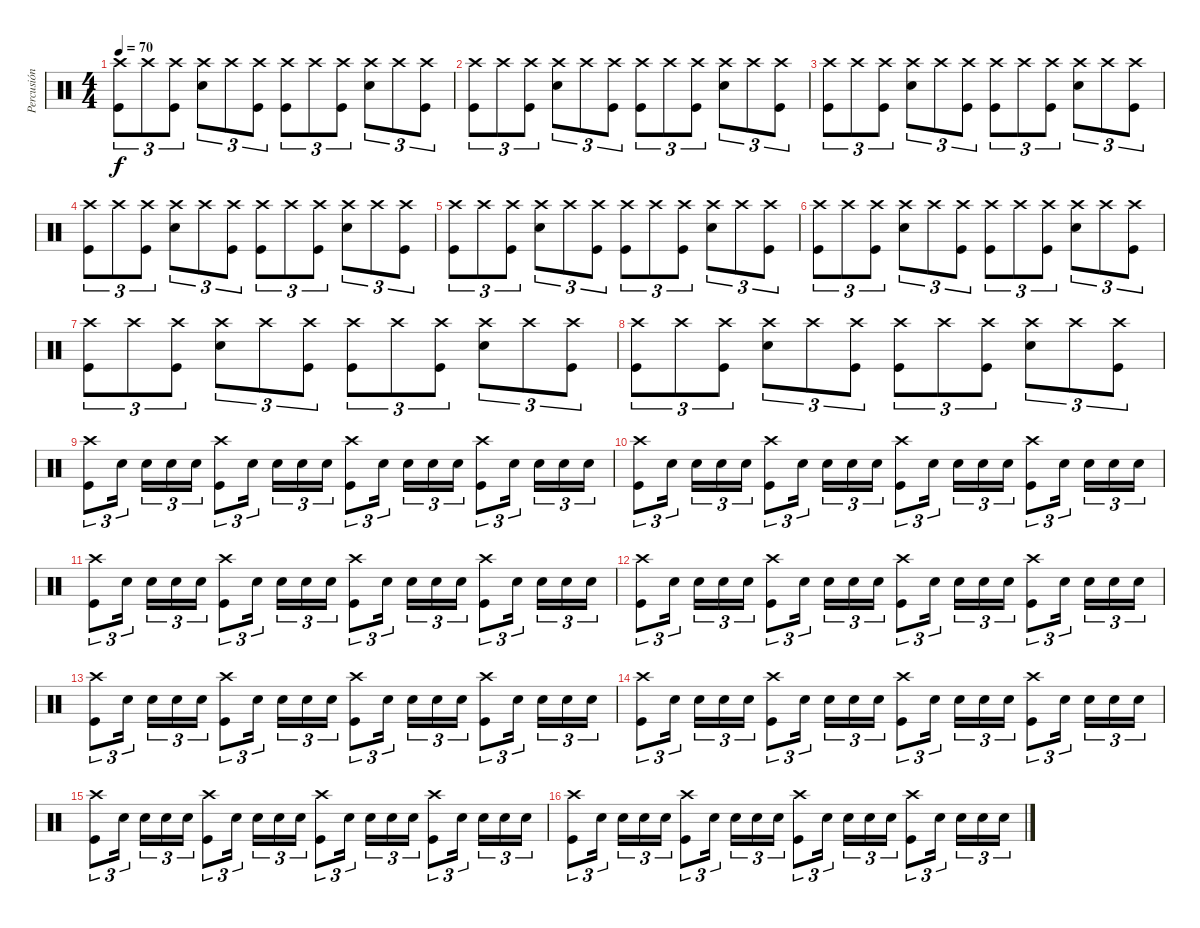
\track ("Percusión" "Percusión") {instrument percussion}
\staff {score}
\articulation defaults
\ts (4 4)
\tempo 70
\clef neutral
\ks c
("Crash high (hit)" "Kick (hit)").8{tu (3 2) dy f} "Crash high (hit)".8{tu (3 2)} ("Crash high (hit)" "Kick (hit)").8{tu (3 2)} ("Crash high (hit)" "Snare (hit) 2").8{tu (3 2)} "Crash high (hit)".8{tu (3 2)} ("Crash high (hit)" "Kick (hit)").8{tu (3 2)} ("Crash high (hit)" "Kick (hit)").8{tu (3 2)} "Crash high (hit)".8{tu (3 2)} ("Crash high (hit)" "Kick (hit)").8{tu (3 2)} ("Crash high (hit)" "Snare (hit) 2").8{tu (3 2)} "Crash high (hit)".8{tu (3 2)} ("Crash high (hit)" "Kick (hit)").8{tu (3 2)} |
("Crash high (hit)" "Kick (hit)").8{tu (3 2)} "Crash high (hit)".8{tu (3 2)} ("Crash high (hit)" "Kick (hit)").8{tu (3 2)} ("Crash high (hit)" "Snare (hit) 2").8{tu (3 2)} "Crash high (hit)".8{tu (3 2)} ("Crash high (hit)" "Kick (hit)").8{tu (3 2)} ("Crash high (hit)" "Kick (hit)").8{tu (3 2)} "Crash high (hit)".8{tu (3 2)} ("Crash high (hit)" "Kick (hit)").8{tu (3 2)} ("Crash high (hit)" "Snare (hit) 2").8{tu (3 2)} "Crash high (hit)".8{tu (3 2)} ("Crash high (hit)" "Kick (hit)").8{tu (3 2)} |
("Crash high (hit)" "Kick (hit)").8{tu (3 2)} "Crash high (hit)".8{tu (3 2)} ("Crash high (hit)" "Kick (hit)").8{tu (3 2)} ("Crash high (hit)" "Snare (hit) 2").8{tu (3 2)} "Crash high (hit)".8{tu (3 2)} ("Crash high (hit)" "Kick (hit)").8{tu (3 2)} ("Crash high (hit)" "Kick (hit)").8{tu (3 2)} "Crash high (hit)".8{tu (3 2)} ("Crash high (hit)" "Kick (hit)").8{tu (3 2)} ("Crash high (hit)" "Snare (hit) 2").8{tu (3 2)} "Crash high (hit)".8{tu (3 2)} ("Crash high (hit)" "Kick (hit)").8{tu (3 2)} |
("Crash high (hit)" "Kick (hit)").8{tu (3 2)} "Crash high (hit)".8{tu (3 2)} ("Crash high (hit)" "Kick (hit)").8{tu (3 2)} ("Crash high (hit)" "Snare (hit) 2").8{tu (3 2)} "Crash high (hit)".8{tu (3 2)} ("Crash high (hit)" "Kick (hit)").8{tu (3 2)} ("Crash high (hit)" "Kick (hit)").8{tu (3 2)} "Crash high (hit)".8{tu (3 2)} ("Crash high (hit)" "Kick (hit)").8{tu (3 2)} ("Crash high (hit)" "Snare (hit) 2").8{tu (3 2)} "Crash high (hit)".8{tu (3 2)} ("Crash high (hit)" "Kick (hit)").8{tu (3 2)} |
("Crash high (hit)" "Kick (hit)").8{tu (3 2)} "Crash high (hit)".8{tu (3 2)} ("Crash high (hit)" "Kick (hit)").8{tu (3 2)} ("Crash high (hit)" "Snare (hit) 2").8{tu (3 2)} "Crash high (hit)".8{tu (3 2)} ("Crash high (hit)" "Kick (hit)").8{tu (3 2)} ("Crash high (hit)" "Kick (hit)").8{tu (3 2)} "Crash high (hit)".8{tu (3 2)} ("Crash high (hit)" "Kick (hit)").8{tu (3 2)} ("Crash high (hit)" "Snare (hit) 2").8{tu (3 2)} "Crash high (hit)".8{tu (3 2)} ("Crash high (hit)" "Kick (hit)").8{tu (3 2)} |
("Crash high (hit)" "Kick (hit)").8{tu (3 2)} "Crash high (hit)".8{tu (3 2)} ("Crash high (hit)" "Kick (hit)").8{tu (3 2)} ("Crash high (hit)" "Snare (hit) 2").8{tu (3 2)} "Crash high (hit)".8{tu (3 2)} ("Crash high (hit)" "Kick (hit)").8{tu (3 2)} ("Crash high (hit)" "Kick (hit)").8{tu (3 2)} "Crash high (hit)".8{tu (3 2)} ("Crash high (hit)" "Kick (hit)").8{tu (3 2)} ("Crash high (hit)" "Snare (hit) 2").8{tu (3 2)} "Crash high (hit)".8{tu (3 2)} ("Crash high (hit)" "Kick (hit)").8{tu (3 2)} |
("Crash high (hit)" "Kick (hit)").8{tu (3 2)} "Crash high (hit)".8{tu (3 2)} ("Crash high (hit)" "Kick (hit)").8{tu (3 2)} ("Crash high (hit)" "Snare (hit) 2").8{tu (3 2)} "Crash high (hit)".8{tu (3 2)} ("Crash high (hit)" "Kick (hit)").8{tu (3 2)} ("Crash high (hit)" "Kick (hit)").8{tu (3 2)} "Crash high (hit)".8{tu (3 2)} ("Crash high (hit)" "Kick (hit)").8{tu (3 2)} ("Crash high (hit)" "Snare (hit) 2").8{tu (3 2)} "Crash high (hit)".8{tu (3 2)} ("Crash high (hit)" "Kick (hit)").8{tu (3 2)} |
("Crash high (hit)" "Kick (hit)").8{tu (3 2)} "Crash high (hit)".8{tu (3 2)} ("Crash high (hit)" "Kick (hit)").8{tu (3 2)} ("Crash high (hit)" "Snare (hit) 2").8{tu (3 2)} "Crash high (hit)".8{tu (3 2)} ("Crash high (hit)" "Kick (hit)").8{tu (3 2)} ("Crash high (hit)" "Kick (hit)").8{tu (3 2)} "Crash high (hit)".8{tu (3 2)} ("Crash high (hit)" "Kick (hit)").8{tu (3 2)} ("Crash high (hit)" "Snare (hit) 2").8{tu (3 2)} "Crash high (hit)".8{tu (3 2)} ("Crash high (hit)" "Kick (hit)").8{tu (3 2)} |
("Kick (hit)" "Crash high (hit)").8{tu (3 2)} "Snare (hit) 2".16{tu (3 2) beam splitsecondary} "Snare (hit) 2".16{tu (3 2)} "Snare (hit) 2".16{tu (3 2)} "Snare (hit) 2".16{tu (3 2)} ("Kick (hit)" "Crash high (hit)").8{tu (3 2)} "Snare (hit) 2".16{tu (3 2) beam splitsecondary} "Snare (hit) 2".16{tu (3 2)} "Snare (hit) 2".16{tu (3 2)} "Snare (hit) 2".16{tu (3 2)} ("Kick (hit)" "Crash high (hit)").8{tu (3 2)} "Snare (hit) 2".16{tu (3 2) beam splitsecondary} "Snare (hit) 2".16{tu (3 2)} "Snare (hit) 2".16{tu (3 2)} "Snare (hit) 2".16{tu (3 2)} ("Kick (hit)" "Crash high (hit)").8{tu (3 2)} "Snare (hit) 2".16{tu (3 2) beam splitsecondary} "Snare (hit) 2".16{tu (3 2)} "Snare (hit) 2".16{tu (3 2)} "Snare (hit) 2".16{tu (3 2)} |
("Kick (hit)" "Crash high (hit)").8{tu (3 2)} "Snare (hit) 2".16{tu (3 2) beam splitsecondary} "Snare (hit) 2".16{tu (3 2)} "Snare (hit) 2".16{tu (3 2)} "Snare (hit) 2".16{tu (3 2)} ("Kick (hit)" "Crash high (hit)").8{tu (3 2)} "Snare (hit) 2".16{tu (3 2) beam splitsecondary} "Snare (hit) 2".16{tu (3 2)} "Snare (hit) 2".16{tu (3 2)} "Snare (hit) 2".16{tu (3 2)} ("Kick (hit)" "Crash high (hit)").8{tu (3 2)} "Snare (hit) 2".16{tu (3 2) beam splitsecondary} "Snare (hit) 2".16{tu (3 2)} "Snare (hit) 2".16{tu (3 2)} "Snare (hit) 2".16{tu (3 2)} ("Kick (hit)" "Crash high (hit)").8{tu (3 2)} "Snare (hit) 2".16{tu (3 2) beam splitsecondary} "Snare (hit) 2".16{tu (3 2)} "Snare (hit) 2".16{tu (3 2)} "Snare (hit) 2".16{tu (3 2)} |
("Kick (hit)" "Crash high (hit)").8{tu (3 2)} "Snare (hit) 2".16{tu (3 2) beam splitsecondary} "Snare (hit) 2".16{tu (3 2)} "Snare (hit) 2".16{tu (3 2)} "Snare (hit) 2".16{tu (3 2)} ("Kick (hit)" "Crash high (hit)").8{tu (3 2)} "Snare (hit) 2".16{tu (3 2) beam splitsecondary} "Snare (hit) 2".16{tu (3 2)} "Snare (hit) 2".16{tu (3 2)} "Snare (hit) 2".16{tu (3 2)} ("Kick (hit)" "Crash high (hit)").8{tu (3 2)} "Snare (hit) 2".16{tu (3 2) beam splitsecondary} "Snare (hit) 2".16{tu (3 2)} "Snare (hit) 2".16{tu (3 2)} "Snare (hit) 2".16{tu (3 2)} ("Kick (hit)" "Crash high (hit)").8{tu (3 2)} "Snare (hit) 2".16{tu (3 2) beam splitsecondary} "Snare (hit) 2".16{tu (3 2)} "Snare (hit) 2".16{tu (3 2)} "Snare (hit) 2".16{tu (3 2)} |
("Kick (hit)" "Crash high (hit)").8{tu (3 2)} "Snare (hit) 2".16{tu (3 2) beam splitsecondary} "Snare (hit) 2".16{tu (3 2)} "Snare (hit) 2".16{tu (3 2)} "Snare (hit) 2".16{tu (3 2)} ("Kick (hit)" "Crash high (hit)").8{tu (3 2)} "Snare (hit) 2".16{tu (3 2) beam splitsecondary} "Snare (hit) 2".16{tu (3 2)} "Snare (hit) 2".16{tu (3 2)} "Snare (hit) 2".16{tu (3 2)} ("Kick (hit)" "Crash high (hit)").8{tu (3 2)} "Snare (hit) 2".16{tu (3 2) beam splitsecondary} "Snare (hit) 2".16{tu (3 2)} "Snare (hit) 2".16{tu (3 2)} "Snare (hit) 2".16{tu (3 2)} ("Kick (hit)" "Crash high (hit)").8{tu (3 2)} "Snare (hit) 2".16{tu (3 2) beam splitsecondary} "Snare (hit) 2".16{tu (3 2)} "Snare (hit) 2".16{tu (3 2)} "Snare (hit) 2".16{tu (3 2)} |
("Kick (hit)" "Crash high (hit)").8{tu (3 2)} "Snare (hit) 2".16{tu (3 2) beam splitsecondary} "Snare (hit) 2".16{tu (3 2)} "Snare (hit) 2".16{tu (3 2)} "Snare (hit) 2".16{tu (3 2)} ("Kick (hit)" "Crash high (hit)").8{tu (3 2)} "Snare (hit) 2".16{tu (3 2) beam splitsecondary} "Snare (hit) 2".16{tu (3 2)} "Snare (hit) 2".16{tu (3 2)} "Snare (hit) 2".16{tu (3 2)} ("Kick (hit)" "Crash high (hit)").8{tu (3 2)} "Snare (hit) 2".16{tu (3 2) beam splitsecondary} "Snare (hit) 2".16{tu (3 2)} "Snare (hit) 2".16{tu (3 2)} "Snare (hit) 2".16{tu (3 2)} ("Kick (hit)" "Crash high (hit)").8{tu (3 2)} "Snare (hit) 2".16{tu (3 2) beam splitsecondary} "Snare (hit) 2".16{tu (3 2)} "Snare (hit) 2".16{tu (3 2)} "Snare (hit) 2".16{tu (3 2)} |
("Kick (hit)" "Crash high (hit)").8{tu (3 2)} "Snare (hit) 2".16{tu (3 2) beam splitsecondary} "Snare (hit) 2".16{tu (3 2)} "Snare (hit) 2".16{tu (3 2)} "Snare (hit) 2".16{tu (3 2)} ("Kick (hit)" "Crash high (hit)").8{tu (3 2)} "Snare (hit) 2".16{tu (3 2) beam splitsecondary} "Snare (hit) 2".16{tu (3 2)} "Snare (hit) 2".16{tu (3 2)} "Snare (hit) 2".16{tu (3 2)} ("Kick (hit)" "Crash high (hit)").8{tu (3 2)} "Snare (hit) 2".16{tu (3 2) beam splitsecondary} "Snare (hit) 2".16{tu (3 2)} "Snare (hit) 2".16{tu (3 2)} "Snare (hit) 2".16{tu (3 2)} ("Kick (hit)" "Crash high (hit)").8{tu (3 2)} "Snare (hit) 2".16{tu (3 2) beam splitsecondary} "Snare (hit) 2".16{tu (3 2)} "Snare (hit) 2".16{tu (3 2)} "Snare (hit) 2".16{tu (3 2)} |
("Kick (hit)" "Crash high (hit)").8{tu (3 2)} "Snare (hit) 2".16{tu (3 2) beam splitsecondary} "Snare (hit) 2".16{tu (3 2)} "Snare (hit) 2".16{tu (3 2)} "Snare (hit) 2".16{tu (3 2)} ("Kick (hit)" "Crash high (hit)").8{tu (3 2)} "Snare (hit) 2".16{tu (3 2) beam splitsecondary} "Snare (hit) 2".16{tu (3 2)} "Snare (hit) 2".16{tu (3 2)} "Snare (hit) 2".16{tu (3 2)} ("Kick (hit)" "Crash high (hit)").8{tu (3 2)} "Snare (hit) 2".16{tu (3 2) beam splitsecondary} "Snare (hit) 2".16{tu (3 2)} "Snare (hit) 2".16{tu (3 2)} "Snare (hit) 2".16{tu (3 2)} ("Kick (hit)" "Crash high (hit)").8{tu (3 2)} "Snare (hit) 2".16{tu (3 2) beam splitsecondary} "Snare (hit) 2".16{tu (3 2)} "Snare (hit) 2".16{tu (3 2)} "Snare (hit) 2".16{tu (3 2)} |
("Kick (hit)" "Crash high (hit)").8{tu (3 2)} "Snare (hit) 2".16{tu (3 2) beam splitsecondary} "Snare (hit) 2".16{tu (3 2)} "Snare (hit) 2".16{tu (3 2)} "Snare (hit) 2".16{tu (3 2)} ("Kick (hit)" "Crash high (hit)").8{tu (3 2)} "Snare (hit) 2".16{tu (3 2) beam splitsecondary} "Snare (hit) 2".16{tu (3 2)} "Snare (hit) 2".16{tu (3 2)} "Snare (hit) 2".16{tu (3 2)} ("Kick (hit)" "Crash high (hit)").8{tu (3 2)} "Snare (hit) 2".16{tu (3 2) beam splitsecondary} "Snare (hit) 2".16{tu (3 2)} "Snare (hit) 2".16{tu (3 2)} "Snare (hit) 2".16{tu (3 2)} ("Kick (hit)" "Crash high (hit)").8{tu (3 2)} "Snare (hit) 2".16{tu (3 2) beam splitsecondary} "Snare (hit) 2".16{tu (3 2)} "Snare (hit) 2".16{tu (3 2)} "Snare (hit) 2".16{tu (3 2)}
